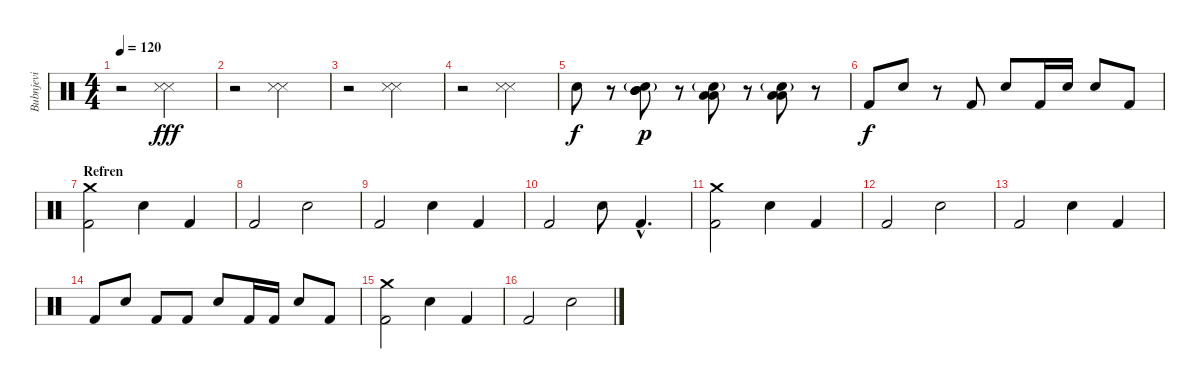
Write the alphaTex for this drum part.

\track ("Bubnjevi" "Bubnjevi") {instrument percussion}
\staff {score}
\articulation defaults
\ts (4 4)
\tempo 120
\clef neutral
\ks c
r.2{dy fff} ("Snare (side stick) 3" "Snare (side stick) 3").2 |
r.2 ("Snare (side stick) 3" "Snare (side stick) 3").2 |
r.2 ("Snare (side stick) 3" "Snare (side stick) 3").2 |
r.2 ("Snare (side stick) 3" "Snare (side stick) 3").2 |
"Snare (hit) 2".8{dy f} r.8 ("Mid Tom (hit)" "Mid Tom (hit)" "Snare (hit) 2"{g}).8{dy p} r.8 ("Low Tom (hit)" "Low Tom (hit)" "Snare (hit) 2"{g}).8 r.8 ("Low Tom (hit)" "Low Tom (hit)" "Snare (hit) 2"{g}).8 r.8 |
"Kick (hit) 2".8{dy f} "Snare (hit) 2".8 r.8 "Kick (hit) 2".8 "Snare (hit) 2".8 "Kick (hit) 2".16 "Snare (hit) 2".16 "Snare (hit) 2".8 "Kick (hit) 2".8 |
\section ("" "Refren")
("Crash medium (hit)" "Kick (hit) 2").2 "Snare (hit) 2".4 "Kick (hit) 2".4 |
"Kick (hit) 2".2 "Snare (hit) 2".2 |
"Kick (hit) 2".2 "Snare (hit) 2".4 "Kick (hit) 2".4 |
"Kick (hit) 2".2 "Snare (hit) 2".8 "Kick (hit) 2"{hac}.4{d} |
("Crash medium (hit)" "Kick (hit) 2").2 "Snare (hit) 2".4 "Kick (hit) 2".4 |
"Kick (hit) 2".2 "Snare (hit) 2".2 |
"Kick (hit) 2".2 "Snare (hit) 2".4 "Kick (hit) 2".4 |
"Kick (hit) 2".8 "Snare (hit) 2".8 "Kick (hit) 2".8 "Kick (hit) 2".8 "Snare (hit) 2".8 "Kick (hit) 2".16 "Kick (hit) 2".16 "Snare (hit) 2".8 "Kick (hit) 2".8 |
("Crash medium (hit)" "Kick (hit) 2").2 "Snare (hit) 2".4 "Kick (hit) 2".4 |
"Kick (hit) 2".2 "Snare (hit) 2".2
